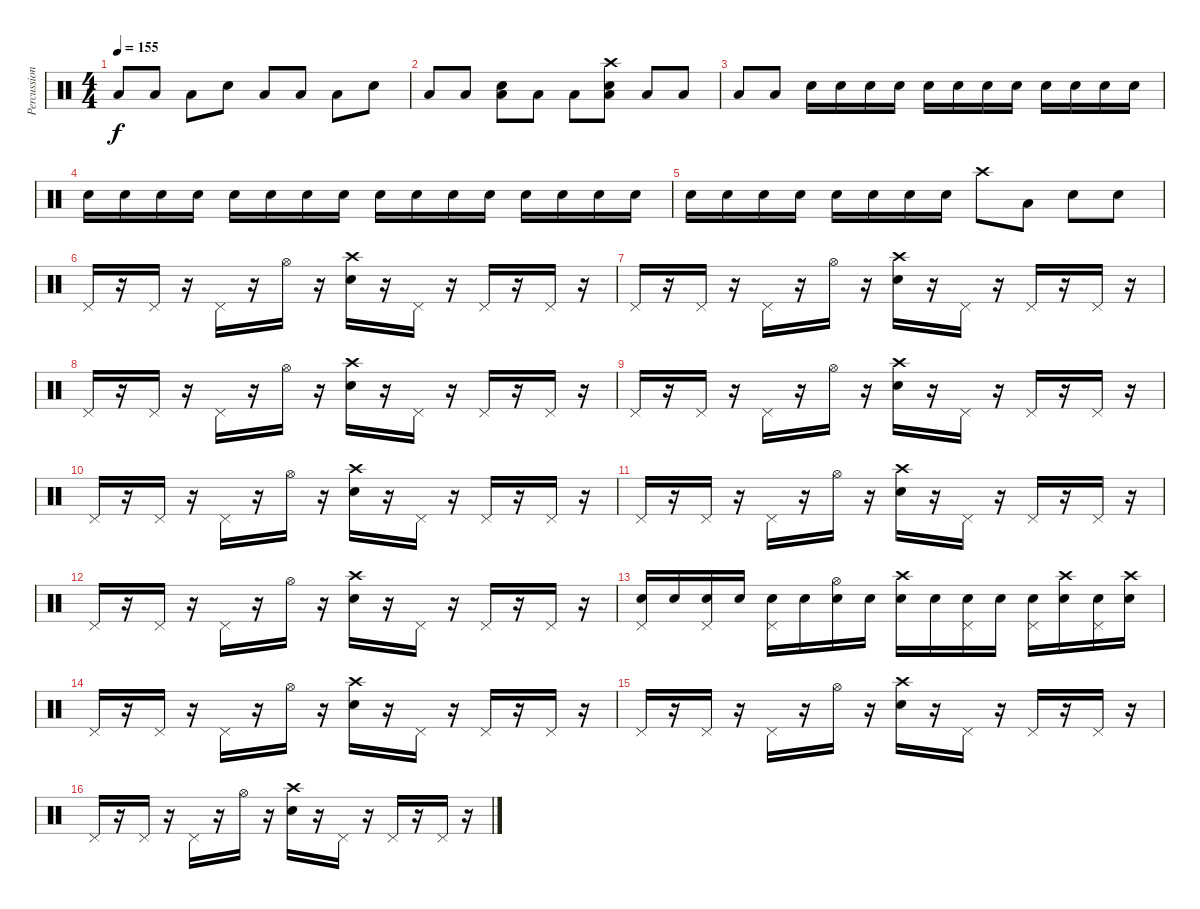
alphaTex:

\track ("Percussion" "Percussion") {instrument percussion}
\staff {score}
\articulation defaults
\ts (4 4)
\tempo 155
\clef neutral
\ks c "Low Tom (hit)".8{dy f} "Low Tom (hit)".8 "Low Tom (hit)".8 "Electric Snare (hit)".8 "Low Tom (hit)".8 "Low Tom (hit)".8 "Low Tom (hit)".8 "Electric Snare (hit)".8
|
"Low Tom (hit)".8 "Low Tom (hit)".8 ("Electric Snare (hit)" "Low Tom (hit)").8 "Low Tom (hit)".8 "Low Tom (hit)".8 ("Crash high (hit)" "Electric Snare (hit)" "Low Tom (hit)").8 "Low Tom (hit)".8 "Low Tom (hit)".8 |
"Low Tom (hit)".8 "Low Tom (hit)".8 "Electric Snare (hit)".16 "Electric Snare (hit)".16 "Electric Snare (hit)".16 "Electric Snare (hit)".16 "Electric Snare (hit)".16 "Electric Snare (hit)".16 "Electric Snare (hit)".16 "Electric Snare (hit)".16 "Electric Snare (hit)".16 "Electric Snare (hit)".16 "Electric Snare (hit)".16 "Electric Snare (hit)".16 |
"Electric Snare (hit)".16 "Electric Snare (hit)".16 "Electric Snare (hit)".16 "Electric Snare (hit)".16 "Electric Snare (hit)".16 "Electric Snare (hit)".16 "Electric Snare (hit)".16 "Electric Snare (hit)".16 "Electric Snare (hit)".16 "Electric Snare (hit)".16 "Electric Snare (hit)".16 "Electric Snare (hit)".16 "Electric Snare (hit)".16 "Electric Snare (hit)".16 "Electric Snare (hit)".16 "Electric Snare (hit)".16 |
"Electric Snare (hit)".16 "Electric Snare (hit)".16 "Electric Snare (hit)".16 "Electric Snare (hit)".16 "Electric Snare (hit)".16 "Electric Snare (hit)".16 "Electric Snare (hit)".16 "Electric Snare (hit)".16 "Crash high (hit)".8 "Low Tom (hit)".8 "Snare (hit) 2".8 "Snare (hit) 2".8 |
"Pedal Hi-Hat (hit)".16 r.16 "Pedal Hi-Hat (hit)".16 r.16 "Pedal Hi-Hat (hit)".16 r.16 "Hi-Hat (open)".16 r.16 ("Crash high (hit)" "Electric Snare (hit)").16 r.16 "Pedal Hi-Hat (hit)".16 r.16 "Pedal Hi-Hat (hit)".16 r.16 "Pedal Hi-Hat (hit)".16 r.16 |
"Pedal Hi-Hat (hit)".16 r.16 "Pedal Hi-Hat (hit)".16 r.16 "Pedal Hi-Hat (hit)".16 r.16 "Hi-Hat (open)".16 r.16 ("Crash high (hit)" "Electric Snare (hit)").16 r.16 "Pedal Hi-Hat (hit)".16 r.16 "Pedal Hi-Hat (hit)".16 r.16 "Pedal Hi-Hat (hit)".16 r.16 |
"Pedal Hi-Hat (hit)".16 r.16 "Pedal Hi-Hat (hit)".16 r.16 "Pedal Hi-Hat (hit)".16 r.16 "Hi-Hat (open)".16 r.16 ("Crash high (hit)" "Electric Snare (hit)").16 r.16 "Pedal Hi-Hat (hit)".16 r.16 "Pedal Hi-Hat (hit)".16 r.16 "Pedal Hi-Hat (hit)".16 r.16 |
"Pedal Hi-Hat (hit)".16 r.16 "Pedal Hi-Hat (hit)".16 r.16 "Pedal Hi-Hat (hit)".16 r.16 "Hi-Hat (open)".16 r.16 ("Crash high (hit)" "Electric Snare (hit)").16 r.16 "Pedal Hi-Hat (hit)".16 r.16 "Pedal Hi-Hat (hit)".16 r.16 "Pedal Hi-Hat (hit)".16 r.16 |
"Pedal Hi-Hat (hit)".16 r.16 "Pedal Hi-Hat (hit)".16 r.16 "Pedal Hi-Hat (hit)".16 r.16 "Hi-Hat (open)".16 r.16 ("Crash high (hit)" "Electric Snare (hit)").16 r.16 "Pedal Hi-Hat (hit)".16 r.16 "Pedal Hi-Hat (hit)".16 r.16 "Pedal Hi-Hat (hit)".16 r.16 |
"Pedal Hi-Hat (hit)".16 r.16 "Pedal Hi-Hat (hit)".16 r.16 "Pedal Hi-Hat (hit)".16 r.16 "Hi-Hat (open)".16 r.16 ("Crash high (hit)" "Electric Snare (hit)").16 r.16 "Pedal Hi-Hat (hit)".16 r.16 "Pedal Hi-Hat (hit)".16 r.16 "Pedal Hi-Hat (hit)".16 r.16 |
"Pedal Hi-Hat (hit)".16 r.16 "Pedal Hi-Hat (hit)".16 r.16 "Pedal Hi-Hat (hit)".16 r.16 "Hi-Hat (open)".16 r.16 ("Crash high (hit)" "Electric Snare (hit)").16 r.16 "Pedal Hi-Hat (hit)".16 r.16 "Pedal Hi-Hat (hit)".16 r.16 "Pedal Hi-Hat (hit)".16 r.16 |
("Pedal Hi-Hat (hit)" "Electric Snare (hit)").16 "Electric Snare (hit)".16 ("Pedal Hi-Hat (hit)" "Electric Snare (hit)").16 "Electric Snare (hit)".16 ("Pedal Hi-Hat (hit)" "Electric Snare (hit)").16 "Electric Snare (hit)".16 ("Hi-Hat (open)" "Electric Snare (hit)").16 "Electric Snare (hit)".16 ("Crash high (hit)" "Electric Snare (hit)").16 "Electric Snare (hit)".16 ("Pedal Hi-Hat (hit)" "Electric Snare (hit)").16 "Electric Snare (hit)".16 ("Pedal Hi-Hat (hit)" "Electric Snare (hit)").16 ("Crash high (hit)" "Electric Snare (hit)").16 ("Pedal Hi-Hat (hit)" "Electric Snare (hit)").16 ("Crash high (hit)" "Electric Snare (hit)").16 |
"Pedal Hi-Hat (hit)".16 r.16 "Pedal Hi-Hat (hit)".16 r.16 "Pedal Hi-Hat (hit)".16 r.16 "Hi-Hat (open)".16 r.16 ("Crash high (hit)" "Electric Snare (hit)").16 r.16 "Pedal Hi-Hat (hit)".16 r.16 "Pedal Hi-Hat (hit)".16 r.16 "Pedal Hi-Hat (hit)".16 r.16 |
"Pedal Hi-Hat (hit)".16 r.16 "Pedal Hi-Hat (hit)".16 r.16 "Pedal Hi-Hat (hit)".16 r.16 "Hi-Hat (open)".16 r.16 ("Crash high (hit)" "Electric Snare (hit)").16 r.16 "Pedal Hi-Hat (hit)".16 r.16 "Pedal Hi-Hat (hit)".16 r.16 "Pedal Hi-Hat (hit)".16 r.16 |
"Pedal Hi-Hat (hit)".16 r.16 "Pedal Hi-Hat (hit)".16 r.16 "Pedal Hi-Hat (hit)".16 r.16 "Hi-Hat (open)".16 r.16 ("Crash high (hit)" "Electric Snare (hit)").16 r.16 "Pedal Hi-Hat (hit)".16 r.16 "Pedal Hi-Hat (hit)".16 r.16 "Pedal Hi-Hat (hit)".16 r.16
